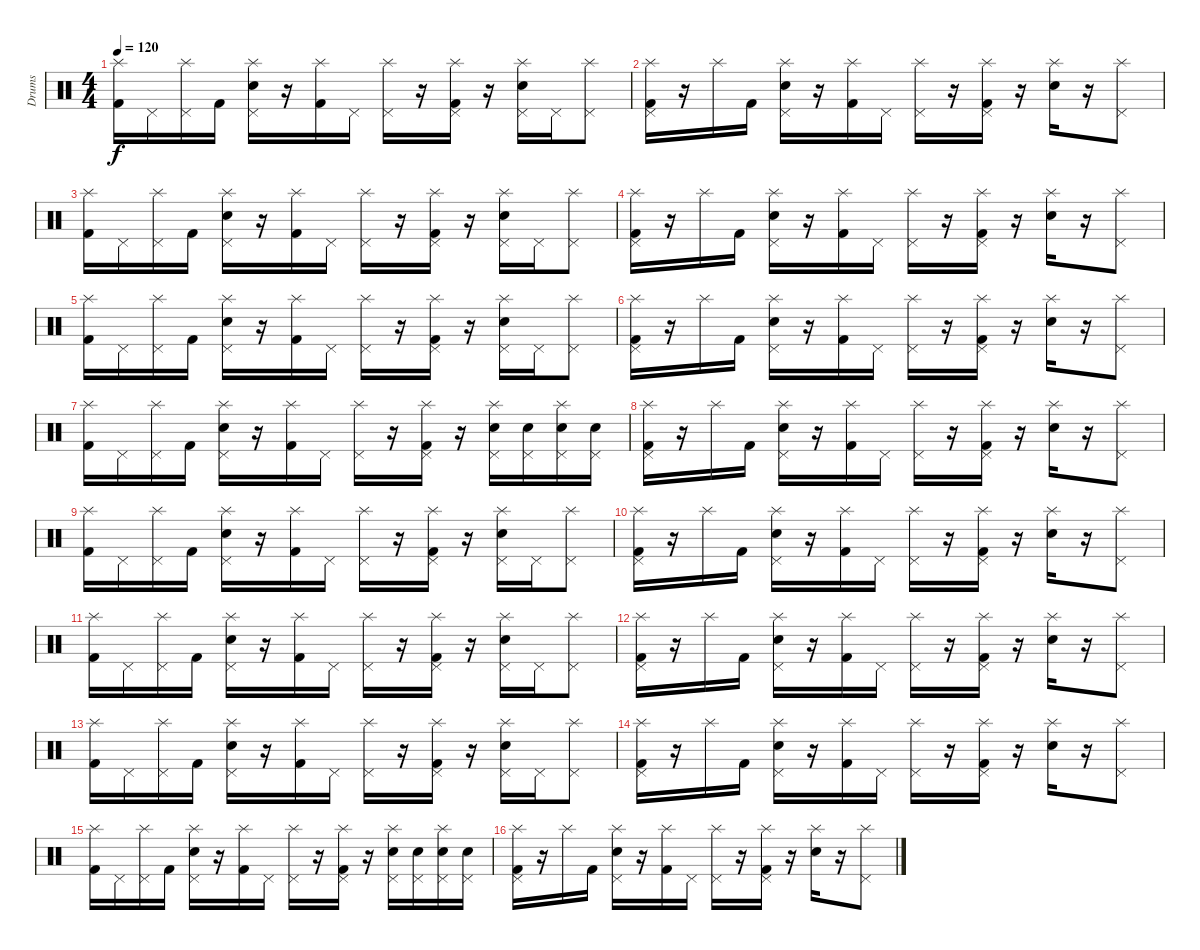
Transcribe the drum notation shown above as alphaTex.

\track ("Drums" "Drums") {instrument percussion}
\staff {score}
\articulation defaults
\ts (4 4)
\tempo 120
\clef neutral
\ks c
("Splash (hit)" "Kick (hit) 2").16{dy f} "Pedal Hi-Hat (hit)".16 ("Splash (hit)" "Pedal Hi-Hat (hit)").16 "Kick (hit) 2".16 ("Splash (hit)" "Pedal Hi-Hat (hit)" "Electric Snare (hit)").16 r.16 ("Splash (hit)" "Kick (hit) 2").16 "Pedal Hi-Hat (hit)".16 ("Splash (hit)" "Pedal Hi-Hat (hit)").16 r.16 ("Splash (hit)" "Pedal Hi-Hat (hit)" "Kick (hit) 2").16 r.16 ("Splash (hit)" "Pedal Hi-Hat (hit)" "Electric Snare (hit)").16 "Pedal Hi-Hat (hit)".16 ("Splash (hit)" "Pedal Hi-Hat (hit)").8 |
("Splash (hit)" "Pedal Hi-Hat (hit)" "Kick (hit) 2").16 r.16 "Splash (hit)".16 "Kick (hit) 2".16 ("Splash (hit)" "Pedal Hi-Hat (hit)" "Electric Snare (hit)").16 r.16 ("Splash (hit)" "Kick (hit) 2").16 "Pedal Hi-Hat (hit)".16 ("Splash (hit)" "Pedal Hi-Hat (hit)").16 r.16 ("Splash (hit)" "Pedal Hi-Hat (hit)" "Kick (hit) 2").16 r.16 ("Splash (hit)" "Electric Snare (hit)").16 r.16 ("Splash (hit)" "Pedal Hi-Hat (hit)").8 |
("Splash (hit)" "Kick (hit) 2").16 "Pedal Hi-Hat (hit)".16 ("Splash (hit)" "Pedal Hi-Hat (hit)").16 "Kick (hit) 2".16 ("Splash (hit)" "Pedal Hi-Hat (hit)" "Electric Snare (hit)").16 r.16 ("Splash (hit)" "Kick (hit) 2").16 "Pedal Hi-Hat (hit)".16 ("Splash (hit)" "Pedal Hi-Hat (hit)").16 r.16 ("Splash (hit)" "Pedal Hi-Hat (hit)" "Kick (hit) 2").16 r.16 ("Splash (hit)" "Pedal Hi-Hat (hit)" "Electric Snare (hit)").16 "Pedal Hi-Hat (hit)".16 ("Splash (hit)" "Pedal Hi-Hat (hit)").8 |
("Splash (hit)" "Pedal Hi-Hat (hit)" "Kick (hit) 2").16 r.16 "Splash (hit)".16 "Kick (hit) 2".16 ("Splash (hit)" "Pedal Hi-Hat (hit)" "Electric Snare (hit)").16 r.16 ("Splash (hit)" "Kick (hit) 2").16 "Pedal Hi-Hat (hit)".16 ("Splash (hit)" "Pedal Hi-Hat (hit)").16 r.16 ("Splash (hit)" "Pedal Hi-Hat (hit)" "Kick (hit) 2").16 r.16 ("Splash (hit)" "Electric Snare (hit)").16 r.16 ("Splash (hit)" "Pedal Hi-Hat (hit)").8 |
("Splash (hit)" "Kick (hit) 2").16 "Pedal Hi-Hat (hit)".16 ("Splash (hit)" "Pedal Hi-Hat (hit)").16 "Kick (hit) 2".16 ("Splash (hit)" "Pedal Hi-Hat (hit)" "Electric Snare (hit)").16 r.16 ("Splash (hit)" "Kick (hit) 2").16 "Pedal Hi-Hat (hit)".16 ("Splash (hit)" "Pedal Hi-Hat (hit)").16 r.16 ("Splash (hit)" "Pedal Hi-Hat (hit)" "Kick (hit) 2").16 r.16 ("Splash (hit)" "Pedal Hi-Hat (hit)" "Electric Snare (hit)").16 "Pedal Hi-Hat (hit)".16 ("Splash (hit)" "Pedal Hi-Hat (hit)").8 |
("Splash (hit)" "Pedal Hi-Hat (hit)" "Kick (hit) 2").16 r.16 "Splash (hit)".16 "Kick (hit) 2".16 ("Splash (hit)" "Pedal Hi-Hat (hit)" "Electric Snare (hit)").16 r.16 ("Splash (hit)" "Kick (hit) 2").16 "Pedal Hi-Hat (hit)".16 ("Splash (hit)" "Pedal Hi-Hat (hit)").16 r.16 ("Splash (hit)" "Pedal Hi-Hat (hit)" "Kick (hit) 2").16 r.16 ("Splash (hit)" "Electric Snare (hit)").16 r.16 ("Splash (hit)" "Pedal Hi-Hat (hit)").8 |
("Splash (hit)" "Kick (hit) 2").16 "Pedal Hi-Hat (hit)".16 ("Splash (hit)" "Pedal Hi-Hat (hit)").16 "Kick (hit) 2".16 ("Splash (hit)" "Pedal Hi-Hat (hit)" "Electric Snare (hit)").16 r.16 ("Splash (hit)" "Kick (hit) 2").16 "Pedal Hi-Hat (hit)".16 ("Splash (hit)" "Pedal Hi-Hat (hit)").16 r.16 ("Splash (hit)" "Pedal Hi-Hat (hit)" "Kick (hit) 2").16 r.16 ("Splash (hit)" "Pedal Hi-Hat (hit)" "Electric Snare (hit)").16 ("Pedal Hi-Hat (hit)" "Electric Snare (hit)").16 ("Splash (hit)" "Pedal Hi-Hat (hit)" "Electric Snare (hit)").16 ("Pedal Hi-Hat (hit)" "Electric Snare (hit)").16 |
("Splash (hit)" "Pedal Hi-Hat (hit)" "Kick (hit) 2").16 r.16 "Splash (hit)".16 "Kick (hit) 2".16 ("Splash (hit)" "Pedal Hi-Hat (hit)" "Electric Snare (hit)").16 r.16 ("Splash (hit)" "Kick (hit) 2").16 "Pedal Hi-Hat (hit)".16 ("Splash (hit)" "Pedal Hi-Hat (hit)").16 r.16 ("Splash (hit)" "Pedal Hi-Hat (hit)" "Kick (hit) 2").16 r.16 ("Splash (hit)" "Electric Snare (hit)").16 r.16 ("Splash (hit)" "Pedal Hi-Hat (hit)").8 |
("Splash (hit)" "Kick (hit) 2").16 "Pedal Hi-Hat (hit)".16 ("Splash (hit)" "Pedal Hi-Hat (hit)").16 "Kick (hit) 2".16 ("Splash (hit)" "Pedal Hi-Hat (hit)" "Electric Snare (hit)").16 r.16 ("Splash (hit)" "Kick (hit) 2").16 "Pedal Hi-Hat (hit)".16 ("Splash (hit)" "Pedal Hi-Hat (hit)").16 r.16 ("Splash (hit)" "Pedal Hi-Hat (hit)" "Kick (hit) 2").16 r.16 ("Splash (hit)" "Pedal Hi-Hat (hit)" "Electric Snare (hit)").16 "Pedal Hi-Hat (hit)".16 ("Splash (hit)" "Pedal Hi-Hat (hit)").8 |
("Splash (hit)" "Pedal Hi-Hat (hit)" "Kick (hit) 2").16 r.16 "Splash (hit)".16 "Kick (hit) 2".16 ("Splash (hit)" "Pedal Hi-Hat (hit)" "Electric Snare (hit)").16 r.16 ("Splash (hit)" "Kick (hit) 2").16 "Pedal Hi-Hat (hit)".16 ("Splash (hit)" "Pedal Hi-Hat (hit)").16 r.16 ("Splash (hit)" "Pedal Hi-Hat (hit)" "Kick (hit) 2").16 r.16 ("Splash (hit)" "Electric Snare (hit)").16 r.16 ("Splash (hit)" "Pedal Hi-Hat (hit)").8 |
("Splash (hit)" "Kick (hit) 2").16 "Pedal Hi-Hat (hit)".16 ("Splash (hit)" "Pedal Hi-Hat (hit)").16 "Kick (hit) 2".16 ("Splash (hit)" "Pedal Hi-Hat (hit)" "Electric Snare (hit)").16 r.16 ("Splash (hit)" "Kick (hit) 2").16 "Pedal Hi-Hat (hit)".16 ("Splash (hit)" "Pedal Hi-Hat (hit)").16 r.16 ("Splash (hit)" "Pedal Hi-Hat (hit)" "Kick (hit) 2").16 r.16 ("Splash (hit)" "Pedal Hi-Hat (hit)" "Electric Snare (hit)").16 "Pedal Hi-Hat (hit)".16 ("Splash (hit)" "Pedal Hi-Hat (hit)").8 |
("Splash (hit)" "Pedal Hi-Hat (hit)" "Kick (hit) 2").16 r.16 "Splash (hit)".16 "Kick (hit) 2".16 ("Splash (hit)" "Pedal Hi-Hat (hit)" "Electric Snare (hit)").16 r.16 ("Splash (hit)" "Kick (hit) 2").16 "Pedal Hi-Hat (hit)".16 ("Splash (hit)" "Pedal Hi-Hat (hit)").16 r.16 ("Splash (hit)" "Pedal Hi-Hat (hit)" "Kick (hit) 2").16 r.16 ("Splash (hit)" "Electric Snare (hit)").16 r.16 ("Splash (hit)" "Pedal Hi-Hat (hit)").8 |
("Splash (hit)" "Kick (hit) 2").16 "Pedal Hi-Hat (hit)".16 ("Splash (hit)" "Pedal Hi-Hat (hit)").16 "Kick (hit) 2".16 ("Splash (hit)" "Pedal Hi-Hat (hit)" "Electric Snare (hit)").16 r.16 ("Splash (hit)" "Kick (hit) 2").16 "Pedal Hi-Hat (hit)".16 ("Splash (hit)" "Pedal Hi-Hat (hit)").16 r.16 ("Splash (hit)" "Pedal Hi-Hat (hit)" "Kick (hit) 2").16 r.16 ("Splash (hit)" "Pedal Hi-Hat (hit)" "Electric Snare (hit)").16 "Pedal Hi-Hat (hit)".16 ("Splash (hit)" "Pedal Hi-Hat (hit)").8 |
("Splash (hit)" "Pedal Hi-Hat (hit)" "Kick (hit) 2").16 r.16 "Splash (hit)".16 "Kick (hit) 2".16 ("Splash (hit)" "Pedal Hi-Hat (hit)" "Electric Snare (hit)").16 r.16 ("Splash (hit)" "Kick (hit) 2").16 "Pedal Hi-Hat (hit)".16 ("Splash (hit)" "Pedal Hi-Hat (hit)").16 r.16 ("Splash (hit)" "Pedal Hi-Hat (hit)" "Kick (hit) 2").16 r.16 ("Splash (hit)" "Electric Snare (hit)").16 r.16 ("Splash (hit)" "Pedal Hi-Hat (hit)").8 |
("Splash (hit)" "Kick (hit) 2").16 "Pedal Hi-Hat (hit)".16 ("Splash (hit)" "Pedal Hi-Hat (hit)").16 "Kick (hit) 2".16 ("Splash (hit)" "Pedal Hi-Hat (hit)" "Electric Snare (hit)").16 r.16 ("Splash (hit)" "Kick (hit) 2").16 "Pedal Hi-Hat (hit)".16 ("Splash (hit)" "Pedal Hi-Hat (hit)").16 r.16 ("Splash (hit)" "Pedal Hi-Hat (hit)" "Kick (hit) 2").16 r.16 ("Splash (hit)" "Pedal Hi-Hat (hit)" "Electric Snare (hit)").16 ("Pedal Hi-Hat (hit)" "Electric Snare (hit)").16 ("Splash (hit)" "Pedal Hi-Hat (hit)" "Electric Snare (hit)").16 ("Pedal Hi-Hat (hit)" "Electric Snare (hit)").16 |
("Splash (hit)" "Pedal Hi-Hat (hit)" "Kick (hit) 2").16 r.16 "Splash (hit)".16 "Kick (hit) 2".16 ("Splash (hit)" "Pedal Hi-Hat (hit)" "Electric Snare (hit)").16 r.16 ("Splash (hit)" "Kick (hit) 2").16 "Pedal Hi-Hat (hit)".16 ("Splash (hit)" "Pedal Hi-Hat (hit)").16 r.16 ("Splash (hit)" "Pedal Hi-Hat (hit)" "Kick (hit) 2").16 r.16 ("Splash (hit)" "Electric Snare (hit)").16 r.16 ("Splash (hit)" "Pedal Hi-Hat (hit)").8
